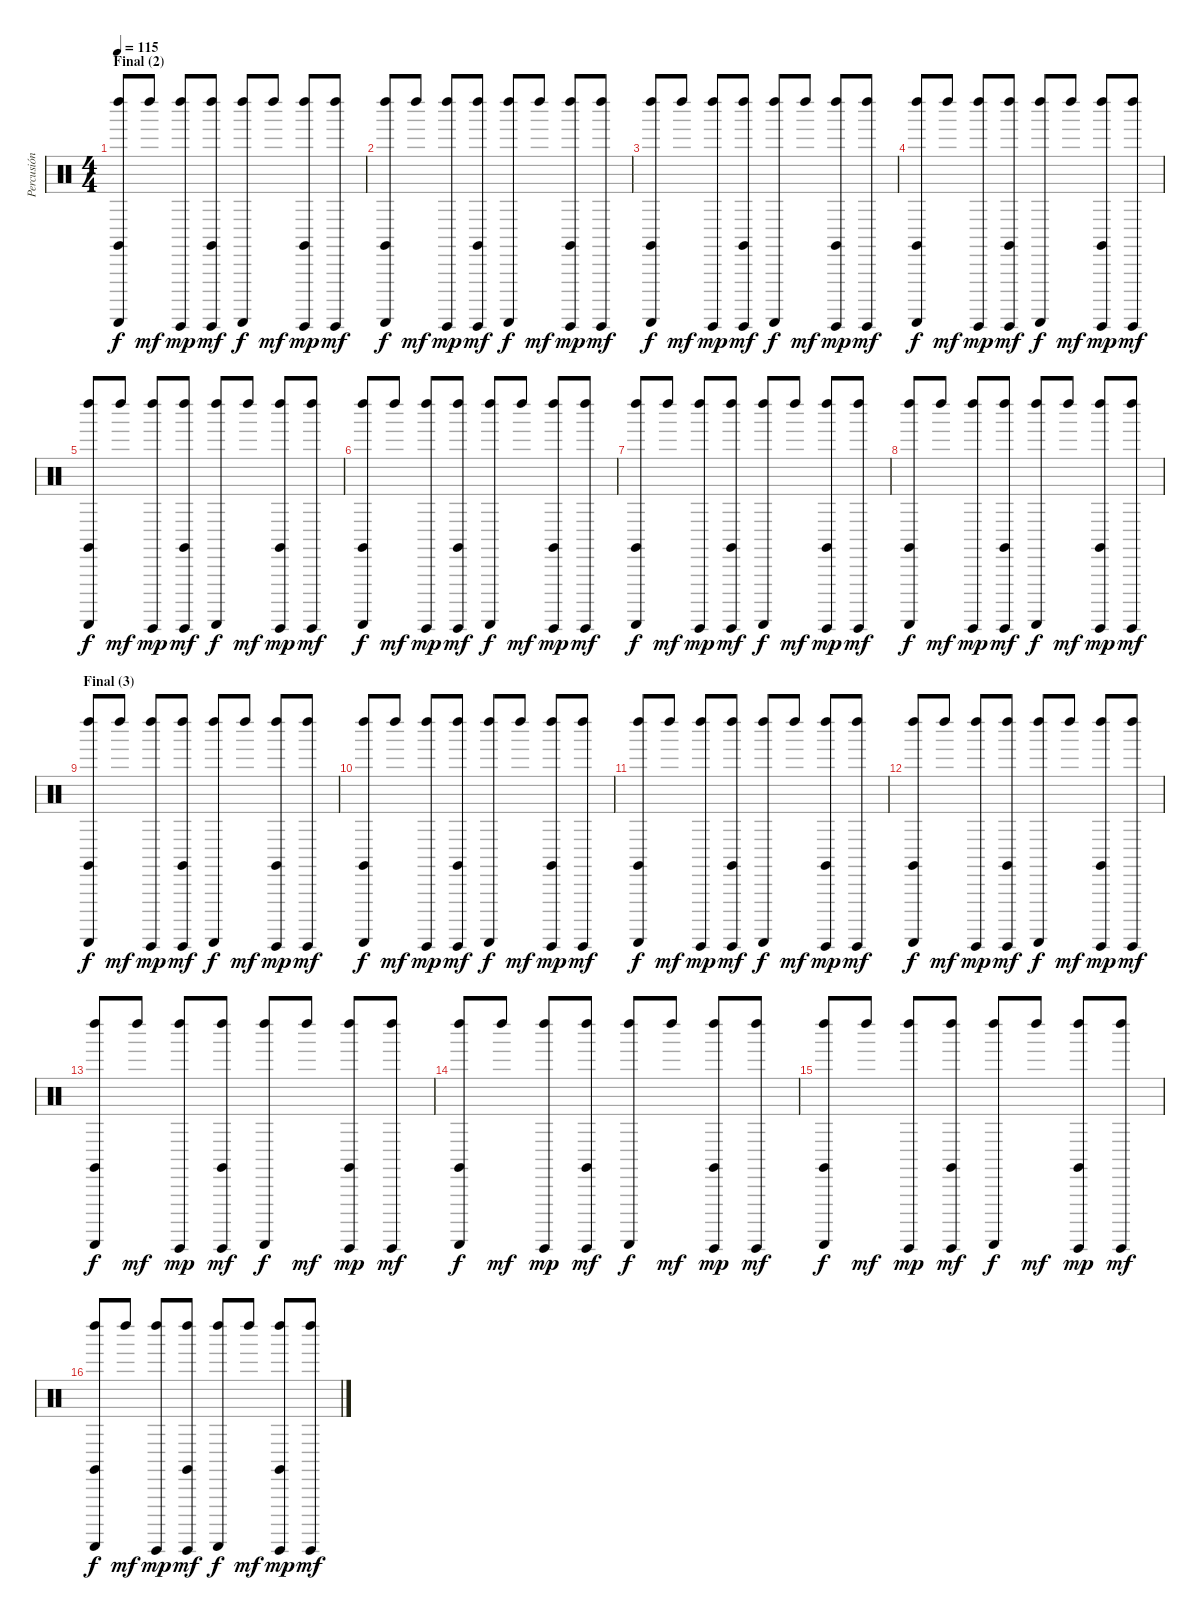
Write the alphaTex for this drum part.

\track ("Percusión" "Percusión") {instrument percussion}
\staff {score}
\articulation defaults
\ts (4 4)
\section ("" "Final (2)")
\tempo 115
\clef neutral
\ks c
("Claves (hit)" "Guiro (scrap-return)" "Left Maraca (hit)").8{dy f} "Left Maraca (hit)".8{dy mf} ("Guiro (hit)" "Left Maraca (hit)").8{dy mp} ("Claves (hit)" "Guiro (hit)" "Left Maraca (hit)").8{dy mf} ("Guiro (scrap-return)" "Left Maraca (hit)").8{dy f} "Left Maraca (hit)".8{dy mf} ("Claves (hit)" "Guiro (hit)" "Left Maraca (hit)").8{dy mp} ("Guiro (hit)" "Left Maraca (hit)").8{dy mf} |
("Claves (hit)" "Guiro (scrap-return)" "Left Maraca (hit)").8{dy f} "Left Maraca (hit)".8{dy mf} ("Guiro (hit)" "Left Maraca (hit)").8{dy mp} ("Claves (hit)" "Guiro (hit)" "Left Maraca (hit)").8{dy mf} ("Guiro (scrap-return)" "Left Maraca (hit)").8{dy f} "Left Maraca (hit)".8{dy mf} ("Claves (hit)" "Guiro (hit)" "Left Maraca (hit)").8{dy mp} ("Guiro (hit)" "Left Maraca (hit)").8{dy mf} |
("Claves (hit)" "Guiro (scrap-return)" "Left Maraca (hit)").8{dy f} "Left Maraca (hit)".8{dy mf} ("Guiro (hit)" "Left Maraca (hit)").8{dy mp} ("Claves (hit)" "Guiro (hit)" "Left Maraca (hit)").8{dy mf} ("Guiro (scrap-return)" "Left Maraca (hit)").8{dy f} "Left Maraca (hit)".8{dy mf} ("Claves (hit)" "Guiro (hit)" "Left Maraca (hit)").8{dy mp} ("Guiro (hit)" "Left Maraca (hit)").8{dy mf} |
("Claves (hit)" "Guiro (scrap-return)" "Left Maraca (hit)").8{dy f} "Left Maraca (hit)".8{dy mf} ("Guiro (hit)" "Left Maraca (hit)").8{dy mp} ("Claves (hit)" "Guiro (hit)" "Left Maraca (hit)").8{dy mf} ("Guiro (scrap-return)" "Left Maraca (hit)").8{dy f} "Left Maraca (hit)".8{dy mf} ("Claves (hit)" "Guiro (hit)" "Left Maraca (hit)").8{dy mp} ("Guiro (hit)" "Left Maraca (hit)").8{dy mf} |
("Claves (hit)" "Guiro (scrap-return)" "Left Maraca (hit)").8{dy f} "Left Maraca (hit)".8{dy mf} ("Guiro (hit)" "Left Maraca (hit)").8{dy mp} ("Claves (hit)" "Guiro (hit)" "Left Maraca (hit)").8{dy mf} ("Guiro (scrap-return)" "Left Maraca (hit)").8{dy f} "Left Maraca (hit)".8{dy mf} ("Claves (hit)" "Guiro (hit)" "Left Maraca (hit)").8{dy mp} ("Guiro (hit)" "Left Maraca (hit)").8{dy mf} |
("Claves (hit)" "Guiro (scrap-return)" "Left Maraca (hit)").8{dy f} "Left Maraca (hit)".8{dy mf} ("Guiro (hit)" "Left Maraca (hit)").8{dy mp} ("Claves (hit)" "Guiro (hit)" "Left Maraca (hit)").8{dy mf} ("Guiro (scrap-return)" "Left Maraca (hit)").8{dy f} "Left Maraca (hit)".8{dy mf} ("Claves (hit)" "Guiro (hit)" "Left Maraca (hit)").8{dy mp} ("Guiro (hit)" "Left Maraca (hit)").8{dy mf} |
("Claves (hit)" "Guiro (scrap-return)" "Left Maraca (hit)").8{dy f} "Left Maraca (hit)".8{dy mf} ("Guiro (hit)" "Left Maraca (hit)").8{dy mp} ("Claves (hit)" "Guiro (hit)" "Left Maraca (hit)").8{dy mf} ("Guiro (scrap-return)" "Left Maraca (hit)").8{dy f} "Left Maraca (hit)".8{dy mf} ("Claves (hit)" "Guiro (hit)" "Left Maraca (hit)").8{dy mp} ("Guiro (hit)" "Left Maraca (hit)").8{dy mf} |
("Claves (hit)" "Guiro (scrap-return)" "Left Maraca (hit)").8{dy f} "Left Maraca (hit)".8{dy mf} ("Guiro (hit)" "Left Maraca (hit)").8{dy mp} ("Claves (hit)" "Guiro (hit)" "Left Maraca (hit)").8{dy mf} ("Guiro (scrap-return)" "Left Maraca (hit)").8{dy f} "Left Maraca (hit)".8{dy mf} ("Claves (hit)" "Guiro (hit)" "Left Maraca (hit)").8{dy mp} ("Guiro (hit)" "Left Maraca (hit)").8{dy mf} |
\section ("" "Final (3)")
("Claves (hit)" "Guiro (scrap-return)" "Left Maraca (hit)").8{dy f} "Left Maraca (hit)".8{dy mf} ("Guiro (hit)" "Left Maraca (hit)").8{dy mp} ("Claves (hit)" "Guiro (hit)" "Left Maraca (hit)").8{dy mf} ("Guiro (scrap-return)" "Left Maraca (hit)").8{dy f} "Left Maraca (hit)".8{dy mf} ("Claves (hit)" "Guiro (hit)" "Left Maraca (hit)").8{dy mp} ("Guiro (hit)" "Left Maraca (hit)").8{dy mf} |
("Claves (hit)" "Guiro (scrap-return)" "Left Maraca (hit)").8{dy f} "Left Maraca (hit)".8{dy mf} ("Guiro (hit)" "Left Maraca (hit)").8{dy mp} ("Claves (hit)" "Guiro (hit)" "Left Maraca (hit)").8{dy mf} ("Guiro (scrap-return)" "Left Maraca (hit)").8{dy f} "Left Maraca (hit)".8{dy mf} ("Claves (hit)" "Guiro (hit)" "Left Maraca (hit)").8{dy mp} ("Guiro (hit)" "Left Maraca (hit)").8{dy mf} |
("Claves (hit)" "Guiro (scrap-return)" "Left Maraca (hit)").8{dy f} "Left Maraca (hit)".8{dy mf} ("Guiro (hit)" "Left Maraca (hit)").8{dy mp} ("Claves (hit)" "Guiro (hit)" "Left Maraca (hit)").8{dy mf} ("Guiro (scrap-return)" "Left Maraca (hit)").8{dy f} "Left Maraca (hit)".8{dy mf} ("Claves (hit)" "Guiro (hit)" "Left Maraca (hit)").8{dy mp} ("Guiro (hit)" "Left Maraca (hit)").8{dy mf} |
("Claves (hit)" "Guiro (scrap-return)" "Left Maraca (hit)").8{dy f} "Left Maraca (hit)".8{dy mf} ("Guiro (hit)" "Left Maraca (hit)").8{dy mp} ("Claves (hit)" "Guiro (hit)" "Left Maraca (hit)").8{dy mf} ("Guiro (scrap-return)" "Left Maraca (hit)").8{dy f} "Left Maraca (hit)".8{dy mf} ("Claves (hit)" "Guiro (hit)" "Left Maraca (hit)").8{dy mp} ("Guiro (hit)" "Left Maraca (hit)").8{dy mf} |
("Claves (hit)" "Guiro (scrap-return)" "Left Maraca (hit)").8{dy f} "Left Maraca (hit)".8{dy mf} ("Guiro (hit)" "Left Maraca (hit)").8{dy mp} ("Claves (hit)" "Guiro (hit)" "Left Maraca (hit)").8{dy mf} ("Guiro (scrap-return)" "Left Maraca (hit)").8{dy f} "Left Maraca (hit)".8{dy mf} ("Claves (hit)" "Guiro (hit)" "Left Maraca (hit)").8{dy mp} ("Guiro (hit)" "Left Maraca (hit)").8{dy mf} |
("Claves (hit)" "Guiro (scrap-return)" "Left Maraca (hit)").8{dy f} "Left Maraca (hit)".8{dy mf} ("Guiro (hit)" "Left Maraca (hit)").8{dy mp} ("Claves (hit)" "Guiro (hit)" "Left Maraca (hit)").8{dy mf} ("Guiro (scrap-return)" "Left Maraca (hit)").8{dy f} "Left Maraca (hit)".8{dy mf} ("Claves (hit)" "Guiro (hit)" "Left Maraca (hit)").8{dy mp} ("Guiro (hit)" "Left Maraca (hit)").8{dy mf} |
("Claves (hit)" "Guiro (scrap-return)" "Left Maraca (hit)").8{dy f} "Left Maraca (hit)".8{dy mf} ("Guiro (hit)" "Left Maraca (hit)").8{dy mp} ("Claves (hit)" "Guiro (hit)" "Left Maraca (hit)").8{dy mf} ("Guiro (scrap-return)" "Left Maraca (hit)").8{dy f} "Left Maraca (hit)".8{dy mf} ("Claves (hit)" "Guiro (hit)" "Left Maraca (hit)").8{dy mp} ("Guiro (hit)" "Left Maraca (hit)").8{dy mf} |
("Claves (hit)" "Guiro (scrap-return)" "Left Maraca (hit)").8{dy f} "Left Maraca (hit)".8{dy mf} ("Guiro (hit)" "Left Maraca (hit)").8{dy mp} ("Claves (hit)" "Guiro (hit)" "Left Maraca (hit)").8{dy mf} ("Guiro (scrap-return)" "Left Maraca (hit)").8{dy f} "Left Maraca (hit)".8{dy mf} ("Claves (hit)" "Guiro (hit)" "Left Maraca (hit)").8{dy mp} ("Guiro (hit)" "Left Maraca (hit)").8{dy mf}
